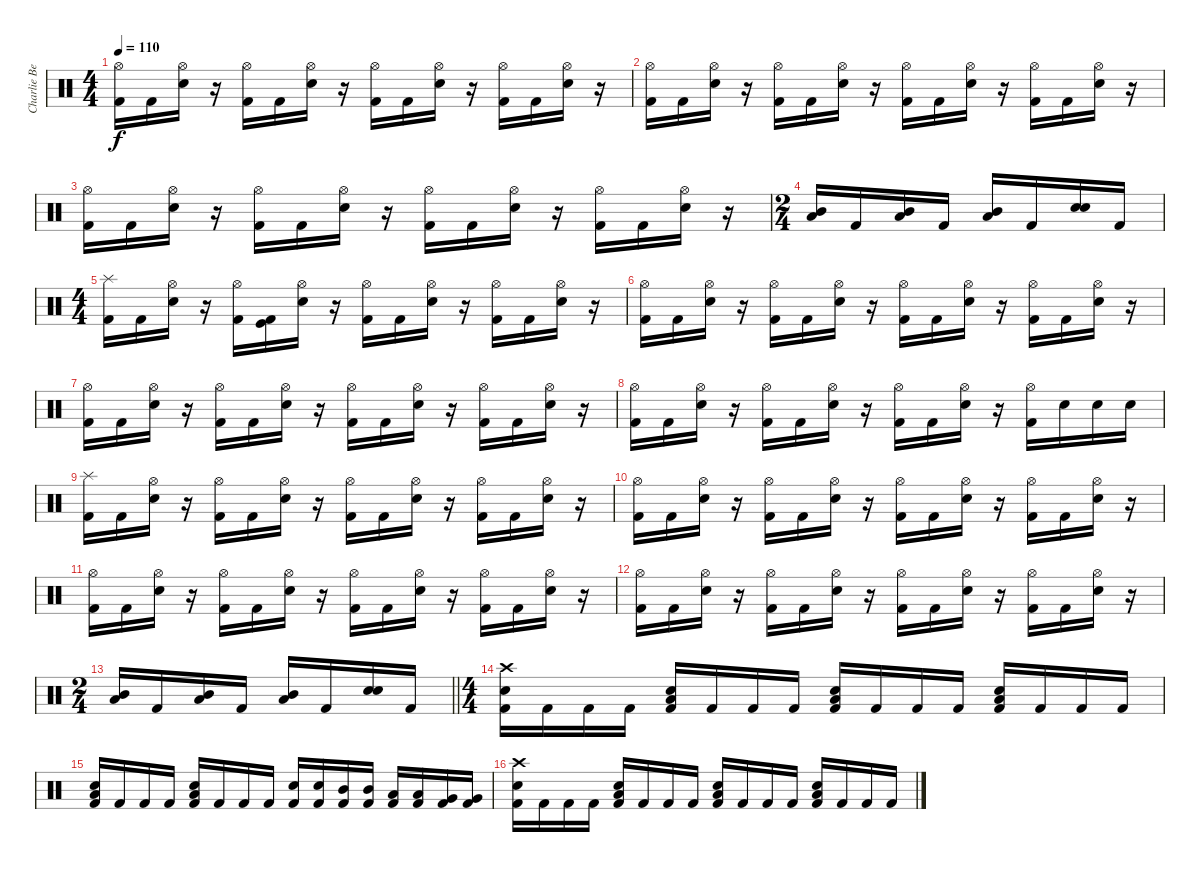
\track ("Charlie Benante" "Charlie Be") {instrument percussion}
\staff {score}
\articulation defaults
\ts (4 4)
\tempo 110
\clef neutral
\ks c
("Hi-Hat (open)" "Kick (hit) 2").16{dy f} "Kick (hit) 2".16 ("Hi-Hat (open)" "Electric Snare (hit)").16 r.16 ("Hi-Hat (open)" "Kick (hit) 2").16 "Kick (hit) 2".16 ("Hi-Hat (open)" "Electric Snare (hit)").16 r.16 ("Hi-Hat (open)" "Kick (hit) 2").16 "Kick (hit) 2".16 ("Hi-Hat (open)" "Electric Snare (hit)").16 r.16 ("Hi-Hat (open)" "Kick (hit) 2").16 "Kick (hit) 2".16 ("Hi-Hat (open)" "Electric Snare (hit)").16 r.16 |
("Hi-Hat (open)" "Kick (hit) 2").16 "Kick (hit) 2".16 ("Hi-Hat (open)" "Electric Snare (hit)").16 r.16 ("Hi-Hat (open)" "Kick (hit) 2").16 "Kick (hit) 2".16 ("Hi-Hat (open)" "Electric Snare (hit)").16 r.16 ("Hi-Hat (open)" "Kick (hit) 2").16 "Kick (hit) 2".16 ("Hi-Hat (open)" "Electric Snare (hit)").16 r.16 ("Hi-Hat (open)" "Kick (hit) 2").16 "Kick (hit) 2".16 ("Hi-Hat (open)" "Electric Snare (hit)").16 r.16 |
("Hi-Hat (open)" "Kick (hit) 2").16 "Kick (hit) 2".16 ("Hi-Hat (open)" "Electric Snare (hit)").16 r.16 ("Hi-Hat (open)" "Kick (hit) 2").16 "Kick (hit) 2".16 ("Hi-Hat (open)" "Electric Snare (hit)").16 r.16 ("Hi-Hat (open)" "Kick (hit) 2").16 "Kick (hit) 2".16 ("Hi-Hat (open)" "Electric Snare (hit)").16 r.16 ("Hi-Hat (open)" "Kick (hit) 2").16 "Kick (hit) 2".16 ("Hi-Hat (open)" "Electric Snare (hit)").16 r.16 |
\ts (2 4)
("Low Tom (hit)" "Mid Tom (hit)").16 "Kick (hit) 2".16 ("Low Tom (hit)" "Mid Tom (hit)").16 "Kick (hit) 2".16 ("Low Tom (hit)" "Mid Tom (hit)").16 "Kick (hit) 2".16 ("Snare (hit) 2" "Electric Snare (hit)").16 "Kick (hit) 2".16 |
\ts (4 4)
("Splash (hit)" "Kick (hit) 2").16 "Kick (hit) 2".16 ("Hi-Hat (open)" "Electric Snare (hit)").16 r.16 ("Hi-Hat (open)" "Kick (hit) 2").16 ("Kick (hit)" "Kick (hit) 2").16 ("Hi-Hat (open)" "Electric Snare (hit)").16 r.16 ("Hi-Hat (open)" "Kick (hit) 2").16 "Kick (hit) 2".16 ("Hi-Hat (open)" "Electric Snare (hit)").16 r.16 ("Hi-Hat (open)" "Kick (hit) 2").16 "Kick (hit) 2".16 ("Hi-Hat (open)" "Electric Snare (hit)").16 r.16 |
("Hi-Hat (open)" "Kick (hit) 2").16 "Kick (hit) 2".16 ("Hi-Hat (open)" "Electric Snare (hit)").16 r.16 ("Hi-Hat (open)" "Kick (hit) 2").16 "Kick (hit) 2".16 ("Hi-Hat (open)" "Electric Snare (hit)").16 r.16 ("Hi-Hat (open)" "Kick (hit) 2").16 "Kick (hit) 2".16 ("Hi-Hat (open)" "Electric Snare (hit)").16 r.16 ("Hi-Hat (open)" "Kick (hit) 2").16 "Kick (hit) 2".16 ("Hi-Hat (open)" "Electric Snare (hit)").16 r.16 |
("Hi-Hat (open)" "Kick (hit) 2").16 "Kick (hit) 2".16 ("Hi-Hat (open)" "Electric Snare (hit)").16 r.16 ("Hi-Hat (open)" "Kick (hit) 2").16 "Kick (hit) 2".16 ("Hi-Hat (open)" "Electric Snare (hit)").16 r.16 ("Hi-Hat (open)" "Kick (hit) 2").16 "Kick (hit) 2".16 ("Hi-Hat (open)" "Electric Snare (hit)").16 r.16 ("Hi-Hat (open)" "Kick (hit) 2").16 "Kick (hit) 2".16 ("Hi-Hat (open)" "Electric Snare (hit)").16 r.16 |
("Hi-Hat (open)" "Kick (hit) 2").16 "Kick (hit) 2".16 ("Hi-Hat (open)" "Electric Snare (hit)").16 r.16 ("Hi-Hat (open)" "Kick (hit) 2").16 "Kick (hit) 2".16 ("Hi-Hat (open)" "Electric Snare (hit)").16 r.16 ("Hi-Hat (open)" "Kick (hit) 2").16 "Kick (hit) 2".16 ("Hi-Hat (open)" "Electric Snare (hit)").16 r.16 ("Hi-Hat (open)" "Kick (hit) 2").16 "Electric Snare (hit)".16 "Snare (hit) 2".16 "Electric Snare (hit)".16 |
("Splash (hit)" "Kick (hit) 2").16 "Kick (hit) 2".16 ("Hi-Hat (open)" "Electric Snare (hit)").16 r.16 ("Hi-Hat (open)" "Kick (hit) 2").16 "Kick (hit) 2".16 ("Hi-Hat (open)" "Electric Snare (hit)").16 r.16 ("Hi-Hat (open)" "Kick (hit) 2").16 "Kick (hit) 2".16 ("Hi-Hat (open)" "Electric Snare (hit)").16 r.16 ("Hi-Hat (open)" "Kick (hit) 2").16 "Kick (hit) 2".16 ("Hi-Hat (open)" "Electric Snare (hit)").16 r.16 |
("Hi-Hat (open)" "Kick (hit) 2").16 "Kick (hit) 2".16 ("Hi-Hat (open)" "Electric Snare (hit)").16 r.16 ("Hi-Hat (open)" "Kick (hit) 2").16 "Kick (hit) 2".16 ("Hi-Hat (open)" "Electric Snare (hit)").16 r.16 ("Hi-Hat (open)" "Kick (hit) 2").16 "Kick (hit) 2".16 ("Hi-Hat (open)" "Electric Snare (hit)").16 r.16 ("Hi-Hat (open)" "Kick (hit) 2").16 "Kick (hit) 2".16 ("Hi-Hat (open)" "Electric Snare (hit)").16 r.16 |
("Hi-Hat (open)" "Kick (hit) 2").16 "Kick (hit) 2".16 ("Hi-Hat (open)" "Electric Snare (hit)").16 r.16 ("Hi-Hat (open)" "Kick (hit) 2").16 "Kick (hit) 2".16 ("Hi-Hat (open)" "Electric Snare (hit)").16 r.16 ("Hi-Hat (open)" "Kick (hit) 2").16 "Kick (hit) 2".16 ("Hi-Hat (open)" "Electric Snare (hit)").16 r.16 ("Hi-Hat (open)" "Kick (hit) 2").16 "Kick (hit) 2".16 ("Hi-Hat (open)" "Electric Snare (hit)").16 r.16 |
("Hi-Hat (open)" "Kick (hit) 2").16 "Kick (hit) 2".16 ("Hi-Hat (open)" "Electric Snare (hit)").16 r.16 ("Hi-Hat (open)" "Kick (hit) 2").16 "Kick (hit) 2".16 ("Hi-Hat (open)" "Electric Snare (hit)").16 r.16 ("Hi-Hat (open)" "Kick (hit) 2").16 "Kick (hit) 2".16 ("Hi-Hat (open)" "Electric Snare (hit)").16 r.16 ("Hi-Hat (open)" "Kick (hit) 2").16 "Kick (hit) 2".16 ("Hi-Hat (open)" "Electric Snare (hit)").16 r.16 |
\ts (2 4)
\barLineRight lightlight
("Low Tom (hit)" "Mid Tom (hit)").16 "Kick (hit) 2".16 ("Low Tom (hit)" "Mid Tom (hit)").16 "Kick (hit) 2".16 ("Low Tom (hit)" "Mid Tom (hit)").16 "Kick (hit) 2".16 ("Snare (hit) 2" "Electric Snare (hit)").16 "Kick (hit) 2".16 |
\ts (4 4)
("Crash high (hit)" "Electric Snare (hit)" "Kick (hit) 2").16 "Kick (hit) 2".16 "Kick (hit) 2".16 "Kick (hit) 2".16 ("Low Floor Tom (hit)" "Electric Snare (hit)" "Kick (hit) 2").16 "Kick (hit) 2".16 "Kick (hit) 2".16 "Kick (hit) 2".16 ("Low Floor Tom (hit)" "Electric Snare (hit)" "Kick (hit) 2").16 "Kick (hit) 2".16 "Kick (hit) 2".16 "Kick (hit) 2".16 ("Low Floor Tom (hit)" "Electric Snare (hit)" "Kick (hit) 2").16 "Kick (hit) 2".16 "Kick (hit) 2".16 "Kick (hit) 2".16 |
("Low Floor Tom (hit)" "Electric Snare (hit)" "Kick (hit) 2").16 "Kick (hit) 2".16 "Kick (hit) 2".16 "Kick (hit) 2".16 ("Low Floor Tom (hit)" "Electric Snare (hit)" "Kick (hit) 2").16 "Kick (hit) 2".16 "Kick (hit) 2".16 "Kick (hit) 2".16 ("Electric Snare (hit)" "Kick (hit) 2").16 ("Electric Snare (hit)" "Kick (hit) 2").16 ("Mid Tom (hit)" "Kick (hit) 2").16 ("Mid Tom (hit)" "Kick (hit) 2").16 ("Low Tom (hit)" "Kick (hit) 2").16 ("Low Tom (hit)" "Kick (hit) 2").16 ("Very Low Tom (hit)" "Kick (hit) 2").16 ("Very Low Tom (hit)" "Kick (hit) 2").16 |
("Crash high (hit)" "Electric Snare (hit)" "Kick (hit) 2").16 "Kick (hit) 2".16 "Kick (hit) 2".16 "Kick (hit) 2".16 ("Low Floor Tom (hit)" "Electric Snare (hit)" "Kick (hit) 2").16 "Kick (hit) 2".16 "Kick (hit) 2".16 "Kick (hit) 2".16 ("Low Floor Tom (hit)" "Electric Snare (hit)" "Kick (hit) 2").16 "Kick (hit) 2".16 "Kick (hit) 2".16 "Kick (hit) 2".16 ("Low Floor Tom (hit)" "Electric Snare (hit)" "Kick (hit) 2").16 "Kick (hit) 2".16 "Kick (hit) 2".16 "Kick (hit) 2".16
